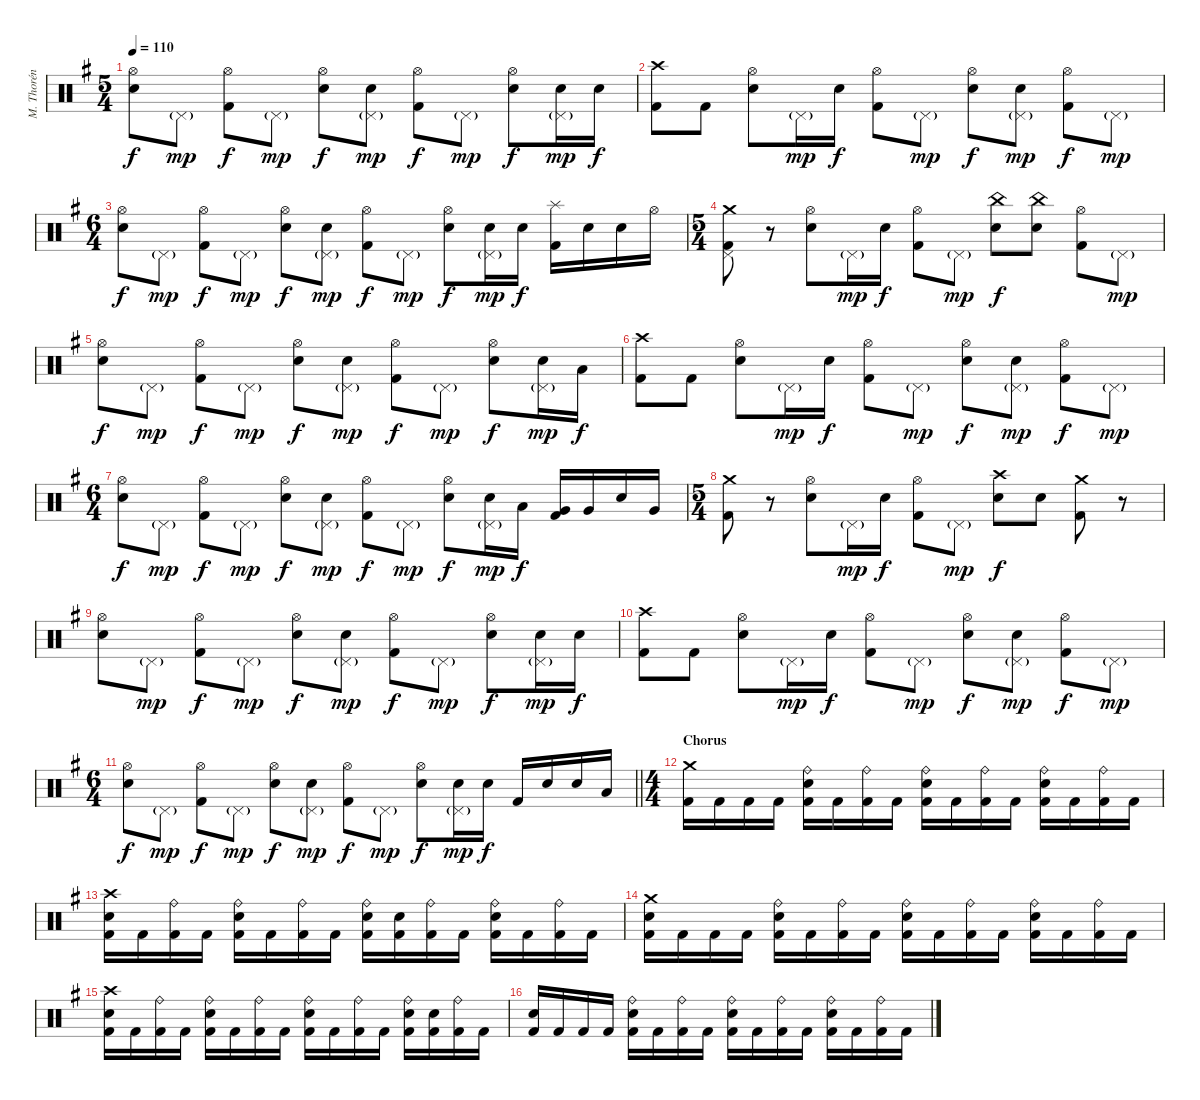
\track ("M. Thorén (Drums)" "M. Thorén ") {instrument percussion}
\staff {score}
\articulation defaults
\ts (5 4)
\tempo 110
\clef neutral
\ks eminor
("Hi-Hat (open)" "Electric Snare (hit)").8{dy f} "Pedal Hi-Hat (hit)"{g}.8{dy mp} ("Hi-Hat (open)" "Kick (hit) 2").8{dy f} "Pedal Hi-Hat (hit)"{g}.8{dy mp} ("Hi-Hat (open)" "Electric Snare (hit)").8{dy f} ("Pedal Hi-Hat (hit)"{g} "Electric Snare (hit)").8{dy mp} ("Hi-Hat (open)" "Kick (hit) 2").8{dy f} "Pedal Hi-Hat (hit)"{g}.8{dy mp} ("Hi-Hat (open)" "Electric Snare (hit)").8{dy f} ("Pedal Hi-Hat (hit)"{g} "Electric Snare (hit)").16{dy mp} "Electric Snare (hit)".16{dy f} |
("Crash high (hit)" "Kick (hit) 2").8 "Kick (hit) 2".8 ("Hi-Hat (open)" "Electric Snare (hit)").8 "Pedal Hi-Hat (hit)"{g}.16{dy mp} "Electric Snare (hit)".16{dy f} ("Hi-Hat (open)" "Kick (hit) 2").8 "Pedal Hi-Hat (hit)"{g}.8{dy mp} ("Hi-Hat (open)" "Electric Snare (hit)").8{dy f} ("Pedal Hi-Hat (hit)"{g} "Electric Snare (hit)").8{dy mp} ("Hi-Hat (open)" "Kick (hit) 2").8{dy f} "Pedal Hi-Hat (hit)"{g}.8{dy mp} |
\ts (6 4)
("Hi-Hat (open)" "Electric Snare (hit)").8{dy f} "Pedal Hi-Hat (hit)"{g}.8{dy mp} ("Hi-Hat (open)" "Kick (hit) 2").8{dy f} "Pedal Hi-Hat (hit)"{g}.8{dy mp} ("Hi-Hat (open)" "Electric Snare (hit)").8{dy f} ("Pedal Hi-Hat (hit)"{g} "Electric Snare (hit)").8{dy mp} ("Hi-Hat (open)" "Kick (hit) 2").8{dy f} "Pedal Hi-Hat (hit)"{g}.8{dy mp} ("Hi-Hat (open)" "Electric Snare (hit)").8{dy f} ("Pedal Hi-Hat (hit)"{g} "Electric Snare (hit)").16{dy mp} "Electric Snare (hit)".16{dy f} ("Splash (hit)" "Kick (hit) 2").16 "Electric Snare (hit)".16 "Electric Snare (hit)".16 "Hi-Hat (open)".16 |
\ts (5 4)
("Crash medium (hit)" "Pedal Hi-Hat (hit)" "Kick (hit) 2").8 r.8 ("Hi-Hat (open)" "Electric Snare (hit)").8 "Pedal Hi-Hat (hit)"{g}.16{dy mp} "Electric Snare (hit)".16{dy f} ("Hi-Hat (open)" "Kick (hit) 2").8 "Pedal Hi-Hat (hit)"{g}.8{dy mp} ("China (hit)" "Electric Snare (hit)").8{dy f} ("China (hit)" "Electric Snare (hit)").8 ("Hi-Hat (open)" "Kick (hit) 2").8 "Pedal Hi-Hat (hit)"{g}.8{dy mp} |
("Hi-Hat (open)" "Electric Snare (hit)").8{dy f} "Pedal Hi-Hat (hit)"{g}.8{dy mp} ("Hi-Hat (open)" "Kick (hit) 2").8{dy f} "Pedal Hi-Hat (hit)"{g}.8{dy mp} ("Hi-Hat (open)" "Electric Snare (hit)").8{dy f} ("Pedal Hi-Hat (hit)"{g} "Electric Snare (hit)").8{dy mp} ("Hi-Hat (open)" "Kick (hit) 2").8{dy f} "Pedal Hi-Hat (hit)"{g}.8{dy mp} ("Hi-Hat (open)" "Electric Snare (hit)").8{dy f} ("Pedal Hi-Hat (hit)"{g} "Electric Snare (hit)").16{dy mp} "Low Tom (hit)".16{dy f} |
("Crash high (hit)" "Kick (hit) 2").8 "Kick (hit) 2".8 ("Hi-Hat (open)" "Electric Snare (hit)").8 "Pedal Hi-Hat (hit)"{g}.16{dy mp} "Electric Snare (hit)".16{dy f} ("Hi-Hat (open)" "Kick (hit) 2").8 "Pedal Hi-Hat (hit)"{g}.8{dy mp} ("Hi-Hat (open)" "Electric Snare (hit)").8{dy f} ("Pedal Hi-Hat (hit)"{g} "Electric Snare (hit)").8{dy mp} ("Hi-Hat (open)" "Kick (hit) 2").8{dy f} "Pedal Hi-Hat (hit)"{g}.8{dy mp} |
\ts (6 4)
("Hi-Hat (open)" "Electric Snare (hit)").8{dy f} "Pedal Hi-Hat (hit)"{g}.8{dy mp} ("Hi-Hat (open)" "Kick (hit) 2").8{dy f} "Pedal Hi-Hat (hit)"{g}.8{dy mp} ("Hi-Hat (open)" "Electric Snare (hit)").8{dy f} ("Pedal Hi-Hat (hit)"{g} "Electric Snare (hit)").8{dy mp} ("Hi-Hat (open)" "Kick (hit) 2").8{dy f} "Pedal Hi-Hat (hit)"{g}.8{dy mp} ("Hi-Hat (open)" "Electric Snare (hit)").8{dy f} ("Pedal Hi-Hat (hit)"{g} "Electric Snare (hit)").16{dy mp} "Low Tom (hit)".16{dy f} ("Very Low Tom (hit)" "Kick (hit) 2").16 "Very Low Tom (hit)".16 "Electric Snare (hit)".16 "Very Low Tom (hit)".16 |
\ts (5 4)
("Crash medium (hit)" "Kick (hit) 2").8 r.8 ("Hi-Hat (open)" "Electric Snare (hit)").8 "Pedal Hi-Hat (hit)"{g}.16{dy mp} "Electric Snare (hit)".16{dy f} ("Hi-Hat (open)" "Kick (hit) 2").8 "Pedal Hi-Hat (hit)"{g}.8{dy mp} ("Crash high (hit)" "Electric Snare (hit)").8{dy f} "Electric Snare (hit)".8 ("Crash medium (hit)" "Kick (hit) 2").8 r.8 |
("Hi-Hat (open)" "Electric Snare (hit)").8 "Pedal Hi-Hat (hit)"{g}.8{dy mp} ("Hi-Hat (open)" "Kick (hit) 2").8{dy f} "Pedal Hi-Hat (hit)"{g}.8{dy mp} ("Hi-Hat (open)" "Electric Snare (hit)").8{dy f} ("Pedal Hi-Hat (hit)"{g} "Electric Snare (hit)").8{dy mp} ("Hi-Hat (open)" "Kick (hit) 2").8{dy f} "Pedal Hi-Hat (hit)"{g}.8{dy mp} ("Hi-Hat (open)" "Electric Snare (hit)").8{dy f} ("Pedal Hi-Hat (hit)"{g} "Electric Snare (hit)").16{dy mp} "Electric Snare (hit)".16{dy f} |
("Crash high (hit)" "Kick (hit) 2").8 "Kick (hit) 2".8 ("Hi-Hat (open)" "Electric Snare (hit)").8 "Pedal Hi-Hat (hit)"{g}.16{dy mp} "Electric Snare (hit)".16{dy f} ("Hi-Hat (open)" "Kick (hit) 2").8 "Pedal Hi-Hat (hit)"{g}.8{dy mp} ("Hi-Hat (open)" "Electric Snare (hit)").8{dy f} ("Pedal Hi-Hat (hit)"{g} "Electric Snare (hit)").8{dy mp} ("Hi-Hat (open)" "Kick (hit) 2").8{dy f} "Pedal Hi-Hat (hit)"{g}.8{dy mp} |
\ts (6 4)
\barLineRight lightlight
("Hi-Hat (open)" "Electric Snare (hit)").8{dy f} "Pedal Hi-Hat (hit)"{g}.8{dy mp} ("Hi-Hat (open)" "Kick (hit) 2").8{dy f} "Pedal Hi-Hat (hit)"{g}.8{dy mp} ("Hi-Hat (open)" "Electric Snare (hit)").8{dy f} ("Pedal Hi-Hat (hit)"{g} "Electric Snare (hit)").8{dy mp} ("Hi-Hat (open)" "Kick (hit) 2").8{dy f} "Pedal Hi-Hat (hit)"{g}.8{dy mp} ("Hi-Hat (open)" "Electric Snare (hit)").8{dy f} ("Pedal Hi-Hat (hit)"{g} "Electric Snare (hit)").16{dy mp} "Electric Snare (hit)".16{dy f} "Kick (hit) 2".16 "Electric Snare (hit)".16 "Electric Snare (hit)".16 "Low Tom (hit)".16 |
\ts (4 4)
\section ("" "Chorus")
("Crash medium (hit)" "Kick (hit) 2").16 "Kick (hit) 2".16 "Kick (hit) 2".16 "Kick (hit) 2".16 ("Ride (bell)" "Electric Snare (hit)" "Kick (hit) 2").16 "Kick (hit) 2".16 ("Ride (bell)" "Kick (hit) 2").16 "Kick (hit) 2".16 ("Ride (bell)" "Electric Snare (hit)" "Kick (hit) 2").16 "Kick (hit) 2".16 ("Ride (bell)" "Kick (hit) 2").16 "Kick (hit) 2".16 ("Ride (bell)" "Electric Snare (hit)" "Kick (hit) 2").16 "Kick (hit) 2".16 ("Ride (bell)" "Kick (hit) 2").16 "Kick (hit) 2".16 |
("Crash high (hit)" "Electric Snare (hit)" "Kick (hit) 2").16 "Kick (hit) 2".16 ("Ride (bell)" "Kick (hit) 2").16 "Kick (hit) 2".16 ("Ride (bell)" "Electric Snare (hit)" "Kick (hit) 2").16 "Kick (hit) 2".16 ("Ride (bell)" "Kick (hit) 2").16 "Kick (hit) 2".16 ("Ride (bell)" "Electric Snare (hit)" "Kick (hit) 2").16 ("Electric Snare (hit)" "Kick (hit) 2").16 ("Ride (bell)" "Kick (hit) 2").16 "Kick (hit) 2".16 ("Ride (bell)" "Electric Snare (hit)" "Kick (hit) 2").16 "Kick (hit) 2".16 ("Ride (bell)" "Kick (hit) 2").16 "Kick (hit) 2".16 |
("Crash medium (hit)" "Electric Snare (hit)" "Kick (hit) 2").16 "Kick (hit) 2".16 "Kick (hit) 2".16 "Kick (hit) 2".16 ("Ride (bell)" "Electric Snare (hit)" "Kick (hit) 2").16 "Kick (hit) 2".16 ("Ride (bell)" "Kick (hit) 2").16 "Kick (hit) 2".16 ("Ride (bell)" "Electric Snare (hit)" "Kick (hit) 2").16 "Kick (hit) 2".16 ("Ride (bell)" "Kick (hit) 2").16 "Kick (hit) 2".16 ("Ride (bell)" "Electric Snare (hit)" "Kick (hit) 2").16 "Kick (hit) 2".16 ("Ride (bell)" "Kick (hit) 2").16 "Kick (hit) 2".16 |
("Crash high (hit)" "Electric Snare (hit)" "Kick (hit) 2").16 "Kick (hit) 2".16 ("Ride (bell)" "Kick (hit) 2").16 "Kick (hit) 2".16 ("Ride (bell)" "Electric Snare (hit)" "Kick (hit) 2").16 "Kick (hit) 2".16 ("Ride (bell)" "Kick (hit) 2").16 "Kick (hit) 2".16 ("Ride (bell)" "Electric Snare (hit)" "Kick (hit) 2").16 "Kick (hit) 2".16 ("Ride (bell)" "Kick (hit) 2").16 "Kick (hit) 2".16 ("Ride (bell)" "Electric Snare (hit)" "Kick (hit) 2").16 ("Electric Snare (hit)" "Kick (hit) 2").16 ("Ride (bell)" "Kick (hit) 2").16 "Kick (hit) 2".16 |
("Electric Snare (hit)" "Kick (hit) 2").16 "Kick (hit) 2".16 "Kick (hit) 2".16 "Kick (hit) 2".16 ("Ride (bell)" "Electric Snare (hit)" "Kick (hit) 2").16 "Kick (hit) 2".16 ("Ride (bell)" "Kick (hit) 2").16 "Kick (hit) 2".16 ("Ride (bell)" "Electric Snare (hit)" "Kick (hit) 2").16 "Kick (hit) 2".16 ("Ride (bell)" "Kick (hit) 2").16 "Kick (hit) 2".16 ("Ride (bell)" "Electric Snare (hit)" "Kick (hit) 2").16 "Kick (hit) 2".16 ("Ride (bell)" "Kick (hit) 2").16 "Kick (hit) 2".16
